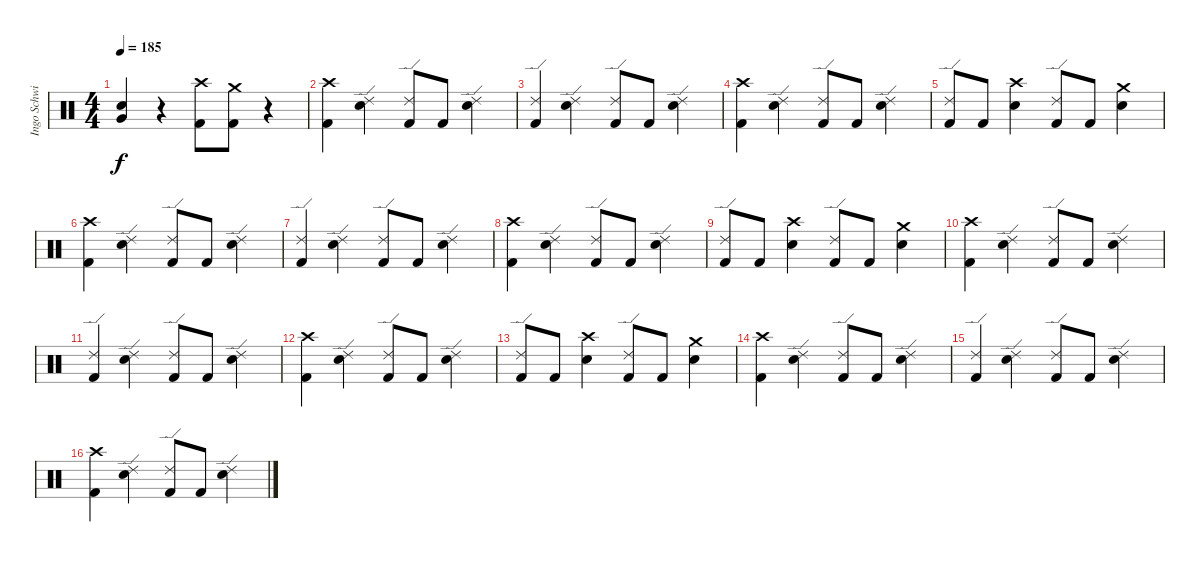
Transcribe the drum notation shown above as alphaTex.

\track ("Ingo Schwischtenberg" "Ingo Schwi") {instrument percussion}
\staff {score}
\articulation defaults
\ts (4 4)
\tempo 185
\clef neutral
\ks c
("Electric Snare (hit)" "Very Low Tom (hit)").4{dy f} r.4 ("Crash high (hit)" "Kick (hit) 2").8 ("Crash medium (hit)" "Kick (hit) 2").8 r.4 |
("Crash high (hit)" "Kick (hit) 2").4 ("Ride (edge) 2" "Electric Snare (hit)").4 ("Ride (edge) 2" "Kick (hit) 2").8 "Kick (hit) 2".8 ("Ride (edge) 2" "Electric Snare (hit)").4 |
("Ride (edge) 2" "Kick (hit) 2").4 ("Ride (edge) 2" "Electric Snare (hit)").4 ("Ride (edge) 2" "Kick (hit) 2").8 "Kick (hit) 2".8 ("Ride (edge) 2" "Electric Snare (hit)").4 |
("Crash high (hit)" "Kick (hit) 2").4 ("Ride (edge) 2" "Electric Snare (hit)").4 ("Ride (edge) 2" "Kick (hit) 2").8 "Kick (hit) 2".8 ("Ride (edge) 2" "Electric Snare (hit)").4 |
("Ride (edge) 2" "Kick (hit) 2").8 "Kick (hit) 2".8 ("Crash high (hit)" "Electric Snare (hit)").4 ("Ride (edge) 2" "Kick (hit) 2").8 "Kick (hit) 2".8 ("Crash medium (hit)" "Electric Snare (hit)").4 |
("Crash high (hit)" "Kick (hit) 2").4 ("Ride (edge) 2" "Electric Snare (hit)").4 ("Ride (edge) 2" "Kick (hit) 2").8 "Kick (hit) 2".8 ("Ride (edge) 2" "Electric Snare (hit)").4 |
("Ride (edge) 2" "Kick (hit) 2").4 ("Ride (edge) 2" "Electric Snare (hit)").4 ("Ride (edge) 2" "Kick (hit) 2").8 "Kick (hit) 2".8 ("Ride (edge) 2" "Electric Snare (hit)").4 |
("Crash high (hit)" "Kick (hit) 2").4 ("Ride (edge) 2" "Electric Snare (hit)").4 ("Ride (edge) 2" "Kick (hit) 2").8 "Kick (hit) 2".8 ("Ride (edge) 2" "Electric Snare (hit)").4 |
("Ride (edge) 2" "Kick (hit) 2").8 "Kick (hit) 2".8 ("Crash high (hit)" "Electric Snare (hit)").4 ("Ride (edge) 2" "Kick (hit) 2").8 "Kick (hit) 2".8 ("Crash medium (hit)" "Electric Snare (hit)").4 |
("Crash high (hit)" "Kick (hit) 2").4 ("Ride (edge) 2" "Electric Snare (hit)").4 ("Ride (edge) 2" "Kick (hit) 2").8 "Kick (hit) 2".8 ("Ride (edge) 2" "Electric Snare (hit)").4 |
("Ride (edge) 2" "Kick (hit) 2").4 ("Ride (edge) 2" "Electric Snare (hit)").4 ("Ride (edge) 2" "Kick (hit) 2").8 "Kick (hit) 2".8 ("Ride (edge) 2" "Electric Snare (hit)").4 |
("Crash high (hit)" "Kick (hit) 2").4 ("Ride (edge) 2" "Electric Snare (hit)").4 ("Ride (edge) 2" "Kick (hit) 2").8 "Kick (hit) 2".8 ("Ride (edge) 2" "Electric Snare (hit)").4 |
("Ride (edge) 2" "Kick (hit) 2").8 "Kick (hit) 2".8 ("Crash high (hit)" "Electric Snare (hit)").4 ("Ride (edge) 2" "Kick (hit) 2").8 "Kick (hit) 2".8 ("Crash medium (hit)" "Electric Snare (hit)").4 |
("Crash high (hit)" "Kick (hit) 2").4 ("Ride (edge) 2" "Electric Snare (hit)").4 ("Ride (edge) 2" "Kick (hit) 2").8 "Kick (hit) 2".8 ("Ride (edge) 2" "Electric Snare (hit)").4 |
("Ride (edge) 2" "Kick (hit) 2").4 ("Ride (edge) 2" "Electric Snare (hit)").4 ("Ride (edge) 2" "Kick (hit) 2").8 "Kick (hit) 2".8 ("Ride (edge) 2" "Electric Snare (hit)").4 |
("Crash high (hit)" "Kick (hit) 2").4 ("Ride (edge) 2" "Electric Snare (hit)").4 ("Ride (edge) 2" "Kick (hit) 2").8 "Kick (hit) 2".8 ("Ride (edge) 2" "Electric Snare (hit)").4
